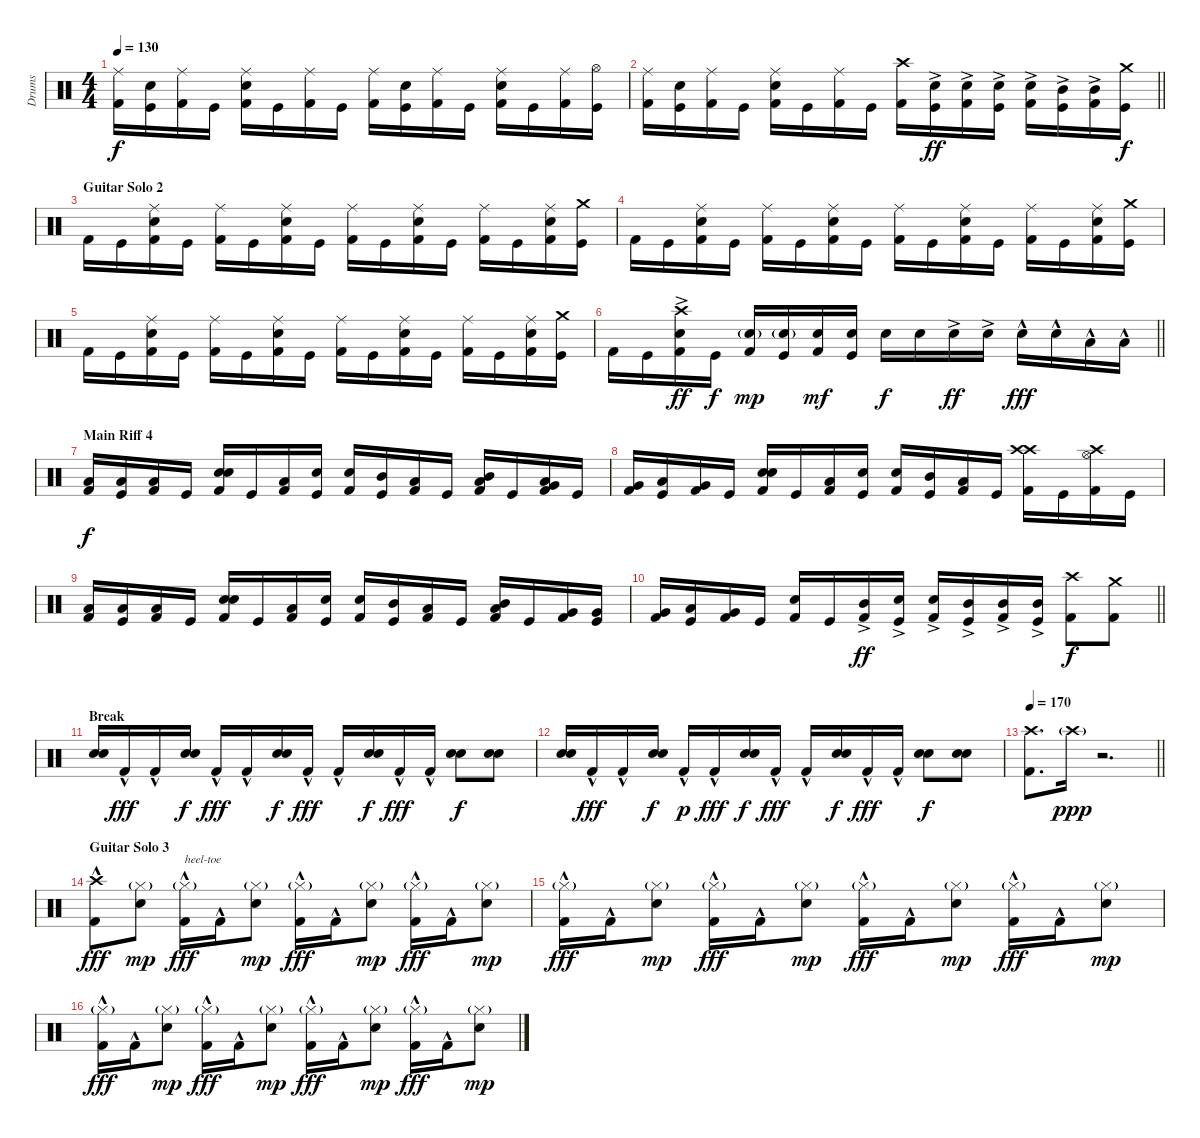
\track ("Drums" "Drums") {instrument percussion}
\staff {score}
\articulation defaults
\ts (4 4)
\tempo 130
\clef neutral
\ks c
("Ride (middle)" "Kick (hit) 2").16{dy f} ("Snare (hit) 2" "Kick (hit)").16 ("Ride (middle)" "Kick (hit) 2").16 "Kick (hit)".16 ("Ride (middle)" "Snare (hit) 2" "Kick (hit) 2").16 "Kick (hit)".16 ("Ride (middle)" "Kick (hit) 2").16 "Kick (hit)".16 ("Ride (middle)" "Kick (hit) 2").16 ("Snare (hit) 2" "Kick (hit)").16 ("Ride (middle)" "Kick (hit) 2").16 "Kick (hit)".16 ("Ride (middle)" "Snare (hit) 2" "Kick (hit) 2").16 "Kick (hit)".16 ("Ride (middle)" "Kick (hit) 2").16 ("Hi-Hat (open)" "Kick (hit)").16 |
\barLineRight lightlight
("Ride (middle)" "Kick (hit) 2").16 ("Snare (hit) 2" "Kick (hit)").16 ("Ride (middle)" "Kick (hit) 2").16 "Kick (hit)".16 ("Ride (middle)" "Snare (hit) 2" "Kick (hit) 2").16 "Kick (hit)".16 ("Ride (middle)" "Kick (hit) 2").16 "Kick (hit)".16 ("Crash high (hit)" "Kick (hit) 2").16 ("Snare (hit) 2"{ac} "Kick (hit)").16{dy ff} ("Snare (hit) 2"{ac} "Kick (hit) 2").16 ("Snare (hit) 2"{ac} "Kick (hit)").16 ("Snare (hit) 2"{ac} "Kick (hit) 2").16 ("Mid Tom (hit)"{ac} "Kick (hit)").16 ("Mid Tom (hit)"{ac} "Kick (hit) 2").16 ("Crash medium (hit)" "Kick (hit)").16{dy f} |
\section ("" "Guitar Solo 2")
"Kick (hit) 2".16 "Kick (hit)".16 ("Ride (middle)" "Snare (hit) 2" "Kick (hit) 2").16 "Kick (hit)".16 ("Ride (middle)" "Kick (hit) 2").16 "Kick (hit)".16 ("Ride (middle)" "Snare (hit) 2" "Kick (hit) 2").16 "Kick (hit)".16 ("Ride (middle)" "Kick (hit) 2").16 "Kick (hit)".16 ("Ride (middle)" "Snare (hit) 2" "Kick (hit) 2").16 "Kick (hit)".16 ("Ride (middle)" "Kick (hit) 2").16 "Kick (hit)".16 ("Ride (middle)" "Snare (hit) 2" "Kick (hit) 2").16 ("Crash medium (hit)" "Kick (hit)").16 |
"Kick (hit) 2".16 "Kick (hit)".16 ("Ride (middle)" "Snare (hit) 2" "Kick (hit) 2").16 "Kick (hit)".16 ("Ride (middle)" "Kick (hit) 2").16 "Kick (hit)".16 ("Ride (middle)" "Snare (hit) 2" "Kick (hit) 2").16 "Kick (hit)".16 ("Ride (middle)" "Kick (hit) 2").16 "Kick (hit)".16 ("Ride (middle)" "Snare (hit) 2" "Kick (hit) 2").16 "Kick (hit)".16 ("Ride (middle)" "Kick (hit) 2").16 "Kick (hit)".16 ("Ride (middle)" "Snare (hit) 2" "Kick (hit) 2").16 ("Crash medium (hit)" "Kick (hit)").16 |
"Kick (hit) 2".16 "Kick (hit)".16 ("Ride (middle)" "Snare (hit) 2" "Kick (hit) 2").16 "Kick (hit)".16 ("Ride (middle)" "Kick (hit) 2").16 "Kick (hit)".16 ("Ride (middle)" "Snare (hit) 2" "Kick (hit) 2").16 "Kick (hit)".16 ("Ride (middle)" "Kick (hit) 2").16 "Kick (hit)".16 ("Ride (middle)" "Snare (hit) 2" "Kick (hit) 2").16 "Kick (hit)".16 ("Ride (middle)" "Kick (hit) 2").16 "Kick (hit)".16 ("Ride (middle)" "Snare (hit) 2" "Kick (hit) 2").16 ("Crash medium (hit)" "Kick (hit)").16 |
\barLineRight lightlight "Kick (hit) 2".16 "Kick (hit)".16
("Crash high (hit)" "Snare (hit) 2"{ac} "Kick (hit) 2").16{dy ff} "Kick (hit)".16{dy f} ("Snare (hit) 2"{g} "Kick (hit) 2").16{dy mp} ("Snare (hit) 2"{g} "Kick (hit)").16 ("Snare (hit) 2" "Kick (hit) 2").16{dy mf} ("Snare (hit) 2" "Kick (hit)").16 "Snare (hit) 2".16{dy f} "Snare (hit) 2".16 "Snare (hit) 2"{ac}.16{dy ff} "Snare (hit) 2"{ac}.16 "Snare (hit) 2"{hac}.16{dy fff} "Snare (hit) 2"{hac}.16 "Low Tom (hit)"{hac}.16 "Low Tom (hit)"{hac}.16 |
\section ("" "Main Riff 4")
("Low Tom (hit)" "Kick (hit) 2").16{dy f} ("Low Tom (hit)" "Kick (hit)").16 ("Low Tom (hit)" "Kick (hit) 2").16 "Kick (hit)".16 ("Snare (hit) 2" "Snare (hit) 2" "Kick (hit) 2").16 "Kick (hit)".16 ("Low Tom (hit)" "Kick (hit) 2").16 ("Snare (hit) 2" "Kick (hit)").16 ("Snare (hit) 2" "Kick (hit) 2").16 ("Mid Tom (hit)" "Kick (hit)").16 ("Low Tom (hit)" "Kick (hit) 2").16 "Kick (hit)".16 ("Mid Tom (hit)" "Low Tom (hit)" "Kick (hit) 2").16 "Kick (hit)".16 ("Low Tom (hit)" "Very Low Tom (hit)" "Kick (hit) 2").16 "Kick (hit)".16 |
("Very Low Tom (hit)" "Kick (hit) 2").16 ("Low Tom (hit)" "Kick (hit)").16 ("Very Low Tom (hit)" "Kick (hit) 2").16 "Kick (hit)".16 ("Snare (hit) 2" "Snare (hit) 2" "Kick (hit) 2").16 "Kick (hit)".16 ("Low Tom (hit)" "Kick (hit) 2").16 ("Snare (hit) 2" "Kick (hit)").16 ("Snare (hit) 2" "Kick (hit) 2").16 ("Mid Tom (hit)" "Kick (hit)").16 ("Low Tom (hit)" "Kick (hit) 2").16 "Kick (hit)".16 ("Crash high (hit)" "Crash high (hit)" "Kick (hit) 2").16 "Kick (hit)".16 ("Crash high (hit)" "Hi-Hat (open)" "Kick (hit) 2").16 "Kick (hit)".16 |
("Low Tom (hit)" "Kick (hit) 2").16 ("Low Tom (hit)" "Kick (hit)").16 ("Low Tom (hit)" "Kick (hit) 2").16 "Kick (hit)".16 ("Snare (hit) 2" "Snare (hit) 2" "Kick (hit) 2").16 "Kick (hit)".16 ("Low Tom (hit)" "Kick (hit) 2").16 ("Snare (hit) 2" "Kick (hit)").16 ("Snare (hit) 2" "Kick (hit) 2").16 ("Mid Tom (hit)" "Kick (hit)").16 ("Low Tom (hit)" "Kick (hit) 2").16 "Kick (hit)".16 ("Mid Tom (hit)" "Low Tom (hit)" "Kick (hit) 2").16 "Kick (hit)".16 ("Very Low Tom (hit)" "Kick (hit) 2").16 ("Very Low Tom (hit)" "Kick (hit)").16 |
\barLineRight lightlight
("Very Low Tom (hit)" "Kick (hit) 2").16 ("Low Tom (hit)" "Kick (hit)").16 ("Very Low Tom (hit)" "Kick (hit) 2").16 "Kick (hit)".16 ("Snare (hit) 2" "Kick (hit) 2").16 "Kick (hit)".16 ("Mid Tom (hit)"{ac} "Kick (hit) 2").16{dy ff} ("Snare (hit) 2"{ac} "Kick (hit)").16 ("Snare (hit) 2"{ac} "Kick (hit) 2").16 ("Mid Tom (hit)"{ac} "Kick (hit)").16 ("Mid Tom (hit)"{ac} "Kick (hit) 2").16 ("Mid Tom (hit)"{ac} "Kick (hit)").16 ("Crash high (hit)" "Kick (hit) 2").8{dy f} ("Crash medium (hit)" "Kick (hit) 2").8 |
\section ("" "Break")
("Snare (hit) 2" "Snare (hit) 2").16 "Kick (hit) 2"{hac}.16{dy fff} "Kick (hit) 2"{hac}.16 ("Snare (hit) 2" "Snare (hit) 2").16{dy f} "Kick (hit) 2"{hac}.16{dy fff} "Kick (hit) 2"{hac}.16 ("Snare (hit) 2" "Snare (hit) 2").16{dy f} "Kick (hit) 2"{hac}.16{dy fff} "Kick (hit) 2"{hac}.16 ("Snare (hit) 2" "Snare (hit) 2").16{dy f} "Kick (hit) 2"{hac}.16{dy fff} "Kick (hit) 2"{hac}.16 ("Snare (hit) 2" "Snare (hit) 2").8{dy f} ("Snare (hit) 2" "Snare (hit) 2").8 |
("Snare (hit) 2" "Snare (hit) 2").16 "Kick (hit) 2"{hac}.16{dy fff} "Kick (hit) 2"{hac}.16 ("Snare (hit) 2" "Snare (hit) 2").16{dy f} "Kick (hit) 2"{hac}.16{dy p} "Kick (hit) 2"{hac}.16{dy fff} ("Snare (hit) 2" "Snare (hit) 2").16{dy f} "Kick (hit) 2"{hac}.16{dy fff} "Kick (hit) 2"{hac}.16 ("Snare (hit) 2" "Snare (hit) 2").16{dy f} "Kick (hit) 2"{hac}.16{dy fff} "Kick (hit) 2"{hac}.16 ("Snare (hit) 2" "Snare (hit) 2").8{dy f} ("Snare (hit) 2" "Snare (hit) 2").8 |
\tempo 170
\barLineRight lightlight
("Crash high (hit)" "Kick (hit) 2").8{d} "Crash high (hit)"{g}.16{dy ppp} r.2{d} |
\section ("" "Guitar Solo 3")
("Crash high (hit)" "Kick (hit) 2"{hac}).8{dy fff} ("Hi-Hat (closed)"{g} "Snare (hit) 2").8{dy mp} ("Hi-Hat (closed)"{g} "Kick (hit) 2"{hac}).16{txt "heel-toe" dy fff} "Kick (hit) 2"{hac}.16 ("Hi-Hat (closed)"{g} "Snare (hit) 2").8{dy mp} ("Hi-Hat (closed)"{g} "Kick (hit) 2"{hac}).16{dy fff} "Kick (hit) 2"{hac}.16 ("Hi-Hat (closed)"{g} "Snare (hit) 2").8{dy mp} ("Hi-Hat (closed)"{g} "Kick (hit) 2"{hac}).16{dy fff} "Kick (hit) 2"{hac}.16 ("Hi-Hat (closed)"{g} "Snare (hit) 2").8{dy mp} |
("Hi-Hat (closed)"{g} "Kick (hit) 2"{hac}).16{dy fff} "Kick (hit) 2"{hac}.16 ("Hi-Hat (closed)"{g} "Snare (hit) 2").8{dy mp} ("Hi-Hat (closed)"{g} "Kick (hit) 2"{hac}).16{dy fff} "Kick (hit) 2"{hac}.16 ("Hi-Hat (closed)"{g} "Snare (hit) 2").8{dy mp} ("Hi-Hat (closed)"{g} "Kick (hit) 2"{hac}).16{dy fff} "Kick (hit) 2"{hac}.16 ("Hi-Hat (closed)"{g} "Snare (hit) 2").8{dy mp} ("Hi-Hat (closed)"{g} "Kick (hit) 2"{hac}).16{dy fff} "Kick (hit) 2"{hac}.16 ("Hi-Hat (closed)"{g} "Snare (hit) 2").8{dy mp} |
("Hi-Hat (closed)"{g} "Kick (hit) 2"{hac}).16{dy fff} "Kick (hit) 2"{hac}.16 ("Hi-Hat (closed)"{g} "Snare (hit) 2").8{dy mp} ("Hi-Hat (closed)"{g} "Kick (hit) 2"{hac}).16{dy fff} "Kick (hit) 2"{hac}.16 ("Hi-Hat (closed)"{g} "Snare (hit) 2").8{dy mp} ("Hi-Hat (closed)"{g} "Kick (hit) 2"{hac}).16{dy fff} "Kick (hit) 2"{hac}.16 ("Hi-Hat (closed)"{g} "Snare (hit) 2").8{dy mp} ("Hi-Hat (closed)"{g} "Kick (hit) 2"{hac}).16{dy fff} "Kick (hit) 2"{hac}.16 ("Hi-Hat (closed)"{g} "Snare (hit) 2").8{dy mp}
